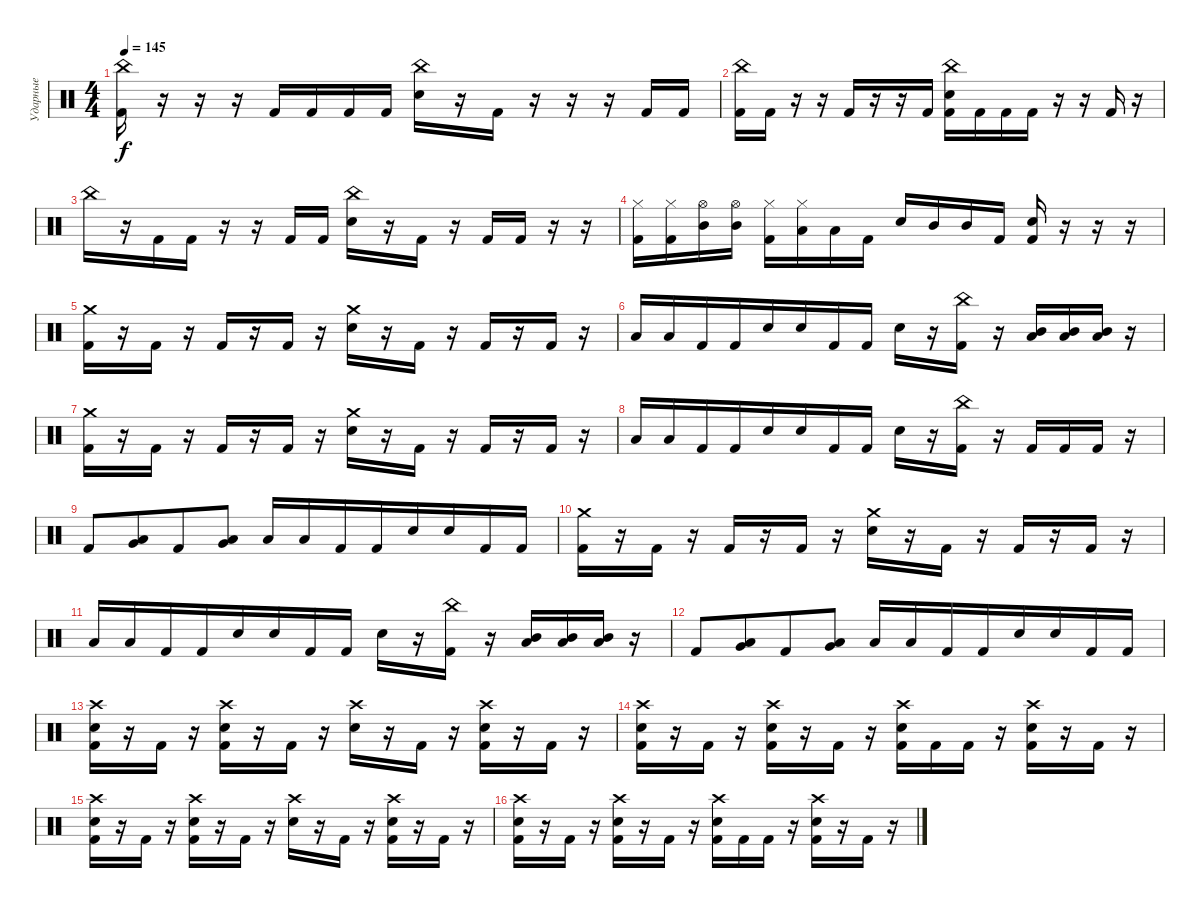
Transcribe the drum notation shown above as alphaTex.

\track ("Ударные" "Ударные") {instrument percussion}
\staff {score}
\articulation defaults
\ts (4 4)
\tempo 145
\clef neutral
\ks c
("China (hit)" "Kick (hit) 2").16{dy f} r.16 r.16 r.16 "Kick (hit) 2".16 "Kick (hit) 2".16 "Kick (hit) 2".16 "Kick (hit) 2".16 ("China (hit)" "Electric Snare (hit)").16 r.16 "Kick (hit) 2".16 r.16 r.16 r.16 "Kick (hit) 2".16 "Kick (hit) 2".16 |
("China (hit)" "Kick (hit) 2").16 "Kick (hit) 2".16 r.16 r.16 "Kick (hit) 2".16 r.16 r.16 "Kick (hit) 2".16 ("China (hit)" "Electric Snare (hit)" "Kick (hit) 2").16 "Kick (hit) 2".16 "Kick (hit) 2".16 "Kick (hit) 2".16 r.16 r.16 "Kick (hit) 2".16 r.16 |
"China (hit)".16 r.16 "Kick (hit) 2".16 "Kick (hit) 2".16 r.16 r.16 "Kick (hit) 2".16 "Kick (hit) 2".16 ("China (hit)" "Electric Snare (hit)").16 r.16 "Kick (hit) 2".16 r.16 "Kick (hit) 2".16 "Kick (hit) 2".16 r.16 r.16 |
("Hi-Hat (closed)" "Kick (hit) 2").16 ("Hi-Hat (closed)" "Kick (hit) 2").16 ("Hi-Hat (open)" "Mid Tom (hit)").16 ("Hi-Hat (open)" "Mid Tom (hit)").16 ("Hi-Hat (closed)" "Kick (hit) 2").16 ("Hi-Hat (closed)" "Low Tom (hit)").16 "Low Tom (hit)".16 "Kick (hit) 2".16 "Electric Snare (hit)".16 "Mid Tom (hit)".16 "Mid Tom (hit)".16 "Kick (hit) 2".16 ("Electric Snare (hit)" "Kick (hit) 2").16 r.16 r.16 r.16 |
("Crash medium (hit)" "Kick (hit) 2").16 r.16 "Kick (hit) 2".16 r.16 "Kick (hit) 2".16 r.16 "Kick (hit) 2".16 r.16 ("Crash medium (hit)" "Electric Snare (hit)").16 r.16 "Kick (hit) 2".16 r.16 "Kick (hit) 2".16 r.16 "Kick (hit) 2".16 r.16 |
"Low Tom (hit)".16{beam merge} "Low Tom (hit)".16{beam merge} "Kick (hit) 2".16 "Kick (hit) 2".16{beam merge} "Electric Snare (hit)".16{beam merge} "Electric Snare (hit)".16 "Kick (hit) 2".16{beam merge} "Kick (hit) 2".16 "Electric Snare (hit)".16 r.16 ("China (hit)" "Kick (hit) 2").16 r.16 ("Mid Tom (hit)" "Low Tom (hit)").16 ("Mid Tom (hit)" "Low Tom (hit)").16 ("Mid Tom (hit)" "Low Tom (hit)").16 r.16 |
("Crash medium (hit)" "Kick (hit) 2").16 r.16 "Kick (hit) 2".16 r.16 "Kick (hit) 2".16 r.16 "Kick (hit) 2".16 r.16 ("Crash medium (hit)" "Electric Snare (hit)").16 r.16 "Kick (hit) 2".16 r.16 "Kick (hit) 2".16 r.16 "Kick (hit) 2".16 r.16 |
"Low Tom (hit)".16{beam merge} "Low Tom (hit)".16{beam merge} "Kick (hit) 2".16 "Kick (hit) 2".16{beam merge} "Electric Snare (hit)".16{beam merge} "Electric Snare (hit)".16 "Kick (hit) 2".16{beam merge} "Kick (hit) 2".16 "Electric Snare (hit)".16 r.16 ("China (hit)" "Kick (hit) 2").16 r.16 "Kick (hit) 2".16 "Kick (hit) 2".16 "Kick (hit) 2".16 r.16 |
"Kick (hit) 2".8 ("Low Floor Tom (hit)" "Very Low Tom (hit)").8{beam merge} "Kick (hit) 2".8{beam merge} ("Very Low Tom (hit)" "Low Floor Tom (hit)").8 "Low Tom (hit)".16{beam merge} "Low Tom (hit)".16{beam merge} "Kick (hit) 2".16 "Kick (hit) 2".16{beam merge} "Electric Snare (hit)".16{beam merge} "Electric Snare (hit)".16 "Kick (hit) 2".16{beam merge} "Kick (hit) 2".16 |
("Crash medium (hit)" "Kick (hit) 2").16 r.16 "Kick (hit) 2".16 r.16 "Kick (hit) 2".16 r.16 "Kick (hit) 2".16 r.16 ("Crash medium (hit)" "Electric Snare (hit)").16 r.16 "Kick (hit) 2".16 r.16 "Kick (hit) 2".16 r.16 "Kick (hit) 2".16 r.16 |
"Low Tom (hit)".16{beam merge} "Low Tom (hit)".16{beam merge} "Kick (hit) 2".16 "Kick (hit) 2".16{beam merge} "Electric Snare (hit)".16{beam merge} "Electric Snare (hit)".16 "Kick (hit) 2".16{beam merge} "Kick (hit) 2".16 "Electric Snare (hit)".16 r.16 ("China (hit)" "Kick (hit) 2").16 r.16 ("Mid Tom (hit)" "Low Tom (hit)").16 ("Mid Tom (hit)" "Low Tom (hit)").16 ("Mid Tom (hit)" "Low Tom (hit)").16 r.16 |
"Kick (hit) 2".8 ("Low Floor Tom (hit)" "Very Low Tom (hit)").8{beam merge} "Kick (hit) 2".8{beam merge} ("Very Low Tom (hit)" "Low Floor Tom (hit)").8 "Low Tom (hit)".16{beam merge} "Low Tom (hit)".16{beam merge} "Kick (hit) 2".16 "Kick (hit) 2".16{beam merge} "Electric Snare (hit)".16{beam merge} "Electric Snare (hit)".16 "Kick (hit) 2".16{beam merge} "Kick (hit) 2".16 |
("Crash high (hit)" "Electric Snare (hit)" "Kick (hit) 2").16 r.16 "Kick (hit) 2".16 r.16 ("Crash high (hit)" "Electric Snare (hit)" "Kick (hit) 2").16 r.16 "Kick (hit) 2".16 r.16 ("Crash high (hit)" "Electric Snare (hit)").16 r.16 "Kick (hit) 2".16 r.16 ("Crash high (hit)" "Electric Snare (hit)" "Kick (hit) 2").16 r.16 "Kick (hit) 2".16 r.16 |
("Crash high (hit)" "Electric Snare (hit)" "Kick (hit) 2").16 r.16 "Kick (hit) 2".16 r.16 ("Crash high (hit)" "Electric Snare (hit)" "Kick (hit) 2").16 r.16 "Kick (hit) 2".16 r.16 ("Crash high (hit)" "Electric Snare (hit)" "Kick (hit) 2").16 "Kick (hit) 2".16 "Kick (hit) 2".16 r.16 ("Crash high (hit)" "Electric Snare (hit)" "Kick (hit) 2").16 r.16 "Kick (hit) 2".16 r.16 |
("Crash high (hit)" "Electric Snare (hit)" "Kick (hit) 2").16 r.16 "Kick (hit) 2".16 r.16 ("Crash high (hit)" "Electric Snare (hit)" "Kick (hit) 2").16 r.16 "Kick (hit) 2".16 r.16 ("Crash high (hit)" "Electric Snare (hit)").16 r.16 "Kick (hit) 2".16 r.16 ("Crash high (hit)" "Electric Snare (hit)" "Kick (hit) 2").16 r.16 "Kick (hit) 2".16 r.16 |
("Crash high (hit)" "Electric Snare (hit)" "Kick (hit) 2").16 r.16 "Kick (hit) 2".16 r.16 ("Crash high (hit)" "Electric Snare (hit)" "Kick (hit) 2").16 r.16 "Kick (hit) 2".16 r.16 ("Crash high (hit)" "Electric Snare (hit)" "Kick (hit) 2").16 "Kick (hit) 2".16 "Kick (hit) 2".16 r.16 ("Crash high (hit)" "Electric Snare (hit)" "Kick (hit) 2").16 r.16 "Kick (hit) 2".16 r.16
